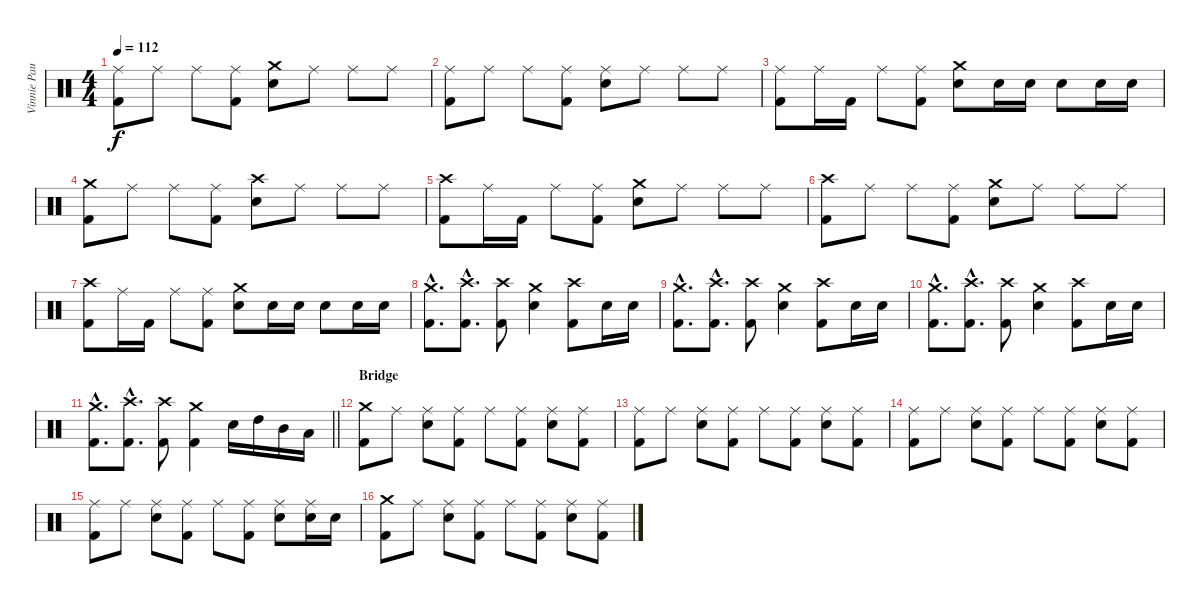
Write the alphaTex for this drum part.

\track ("Vinnie Paul" "Vinnie Pau") {instrument percussion}
\staff {score}
\articulation defaults
\ts (4 4)
\tempo 112
\clef neutral
\ks c
("Ride (middle)" "Kick (hit) 2").8{dy f} "Ride (middle)".8 "Ride (middle)".8 ("Ride (middle)" "Kick (hit) 2").8 ("Crash medium (hit)" "Electric Snare (hit)").8 "Ride (middle)".8 "Ride (middle)".8 "Ride (middle)".8 |
("Ride (middle)" "Kick (hit) 2").8 "Ride (middle)".8 "Ride (middle)".8 ("Ride (middle)" "Kick (hit) 2").8 ("Ride (middle)" "Electric Snare (hit)").8 "Ride (middle)".8 "Ride (middle)".8 "Ride (middle)".8 |
("Ride (middle)" "Kick (hit) 2").8 "Ride (middle)".16 "Kick (hit) 2".16 "Ride (middle)".8 ("Ride (middle)" "Kick (hit) 2").8 ("Crash medium (hit)" "Electric Snare (hit)").8 "Electric Snare (hit)".16 "Electric Snare (hit)".16 "Electric Snare (hit)".8 "Electric Snare (hit)".16 "Electric Snare (hit)".16 |
("Crash medium (hit)" "Kick (hit) 2").8 "Ride (middle)".8 "Ride (middle)".8 ("Ride (middle)" "Kick (hit) 2").8 ("Crash high (hit)" "Electric Snare (hit)").8 "Ride (middle)".8 "Ride (middle)".8 "Ride (middle)".8 |
("Crash high (hit)" "Kick (hit) 2").8 "Ride (middle)".16 "Kick (hit) 2".16 "Ride (middle)".8 ("Ride (middle)" "Kick (hit) 2").8 ("Crash medium (hit)" "Electric Snare (hit)").8 "Ride (middle)".8 "Ride (middle)".8 "Ride (middle)".8 |
("Crash high (hit)" "Kick (hit) 2").8 "Ride (middle)".8 "Ride (middle)".8 ("Ride (middle)" "Kick (hit) 2").8 ("Crash medium (hit)" "Electric Snare (hit)").8 "Ride (middle)".8 "Ride (middle)".8 "Ride (middle)".8 |
("Crash high (hit)" "Kick (hit) 2").8 "Ride (middle)".16 "Kick (hit) 2".16 "Ride (middle)".8 ("Ride (middle)" "Kick (hit) 2").8 ("Crash medium (hit)" "Electric Snare (hit)").8 "Electric Snare (hit)".16 "Electric Snare (hit)".16 "Electric Snare (hit)".8 "Electric Snare (hit)".16 "Electric Snare (hit)".16 |
("Crash medium (hit)"{hac} "Kick (hit) 2"{hac}).8{d} ("Crash high (hit)"{hac} "Kick (hit) 2"{hac}).8{d} ("Crash high (hit)" "Kick (hit) 2").8 ("Crash medium (hit)" "Electric Snare (hit)").4 ("Crash high (hit)" "Kick (hit) 2").8 "Electric Snare (hit)".16 "Electric Snare (hit)".16 |
("Crash medium (hit)"{hac} "Kick (hit) 2"{hac}).8{d} ("Crash high (hit)"{hac} "Kick (hit) 2"{hac}).8{d} ("Crash high (hit)" "Kick (hit) 2").8 ("Crash medium (hit)" "Electric Snare (hit)").4 ("Crash high (hit)" "Kick (hit) 2").8 "Electric Snare (hit)".16 "Electric Snare (hit)".16 |
("Crash medium (hit)"{hac} "Kick (hit) 2"{hac}).8{d} ("Crash high (hit)"{hac} "Kick (hit) 2"{hac}).8{d} ("Crash high (hit)" "Kick (hit) 2").8 ("Crash medium (hit)" "Electric Snare (hit)").4 ("Crash high (hit)" "Kick (hit) 2").8 "Electric Snare (hit)".16 "Electric Snare (hit)".16 |
\barLineRight lightlight
("Crash medium (hit)"{hac} "Kick (hit) 2"{hac}).8{d} ("Crash high (hit)"{hac} "Kick (hit) 2"{hac}).8{d} ("Crash high (hit)" "Kick (hit) 2").8 ("Crash medium (hit)" "Kick (hit) 2").4 "Electric Snare (hit)".16 "High Tom (hit)".16 "Mid Tom (hit)".16 "Low Tom (hit)".16 |
\section ("" "Bridge")
("Crash medium (hit)" "Kick (hit) 2").8 "Ride (middle)".8 ("Ride (middle)" "Electric Snare (hit)").8 ("Ride (middle)" "Kick (hit) 2").8 "Ride (middle)".8 ("Ride (middle)" "Kick (hit) 2").8 ("Ride (middle)" "Electric Snare (hit)").8 ("Ride (middle)" "Kick (hit) 2").8 |
("Ride (middle)" "Kick (hit) 2").8 "Ride (middle)".8 ("Ride (middle)" "Electric Snare (hit)").8 ("Ride (middle)" "Kick (hit) 2").8 "Ride (middle)".8 ("Ride (middle)" "Kick (hit) 2").8 ("Ride (middle)" "Electric Snare (hit)").8 ("Ride (middle)" "Kick (hit) 2").8 |
("Ride (middle)" "Kick (hit) 2").8 "Ride (middle)".8 ("Ride (middle)" "Electric Snare (hit)").8 ("Ride (middle)" "Kick (hit) 2").8 "Ride (middle)".8 ("Ride (middle)" "Kick (hit) 2").8 ("Ride (middle)" "Electric Snare (hit)").8 ("Ride (middle)" "Kick (hit) 2").8 |
("Ride (middle)" "Kick (hit) 2").8 "Ride (middle)".8 ("Ride (middle)" "Electric Snare (hit)").8 ("Ride (middle)" "Kick (hit) 2").8 "Ride (middle)".8 ("Ride (middle)" "Kick (hit) 2").8 ("Ride (middle)" "Electric Snare (hit)").8 ("Ride (middle)" "Electric Snare (hit)").16 "Electric Snare (hit)".16 |
("Crash medium (hit)" "Kick (hit) 2").8 "Ride (middle)".8 ("Ride (middle)" "Electric Snare (hit)").8 ("Ride (middle)" "Kick (hit) 2").8 "Ride (middle)".8 ("Ride (middle)" "Kick (hit) 2").8 ("Ride (middle)" "Electric Snare (hit)").8 ("Ride (middle)" "Kick (hit) 2").8
